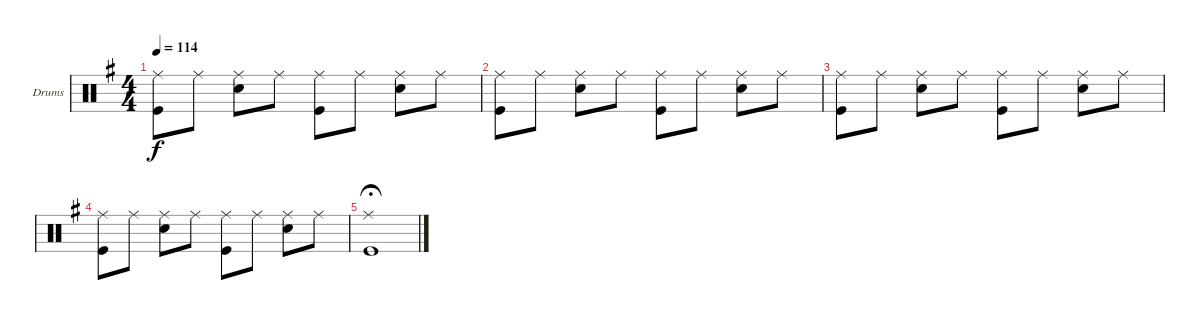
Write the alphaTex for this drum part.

\bracketExtendMode groupsimilarinstruments
\firstSystemTrackNameOrientation horizontal
\otherSystemsTrackNameOrientation horizontal
\track ("Drumkit" "Drums") {instrument percussion}
\staff {score}
\articulation defaults
\ts (4 4)
\tempo 114
\clef neutral
\scale
1.04288
\ks g
("Ride (middle)" "Kick (hit)").8{dy f} "Ride (middle)".8 ("Ride (middle)" "Snare (hit) 2").8 "Ride (middle)".8 ("Ride (middle)" "Kick (hit)").8 "Ride (middle)".8 ("Ride (middle)" "Snare (hit) 2").8 "Ride (middle)".8 |
\scale
0.957125 ("Ride (middle)" "Kick (hit)").8 "Ride (middle)".8 ("Ride (middle)" "Snare (hit) 2").8 "Ride (middle)".8 ("Ride (middle)" "Kick (hit)").8 "Ride (middle)".8 ("Ride (middle)" "Snare (hit) 2").8 "Ride (middle)".8 |
\scale
1.04288 ("Ride (middle)" "Kick (hit)").8 "Ride (middle)".8 ("Ride (middle)" "Snare (hit) 2").8 "Ride (middle)".8 ("Ride (middle)" "Kick (hit)").8 "Ride (middle)".8 ("Ride (middle)" "Snare (hit) 2").8 "Ride (middle)".8 |
\scale
0.957125 ("Ride (middle)" "Kick (hit)").8 "Ride (middle)".8 ("Ride (middle)" "Snare (hit) 2").8 "Ride (middle)".8 ("Ride (middle)" "Kick (hit)").8 "Ride (middle)".8 ("Ride (middle)" "Snare (hit) 2").8 "Ride (middle)".8 |
("Ride (middle)" "Kick (hit)").1{fermata (medium 0.26)}
